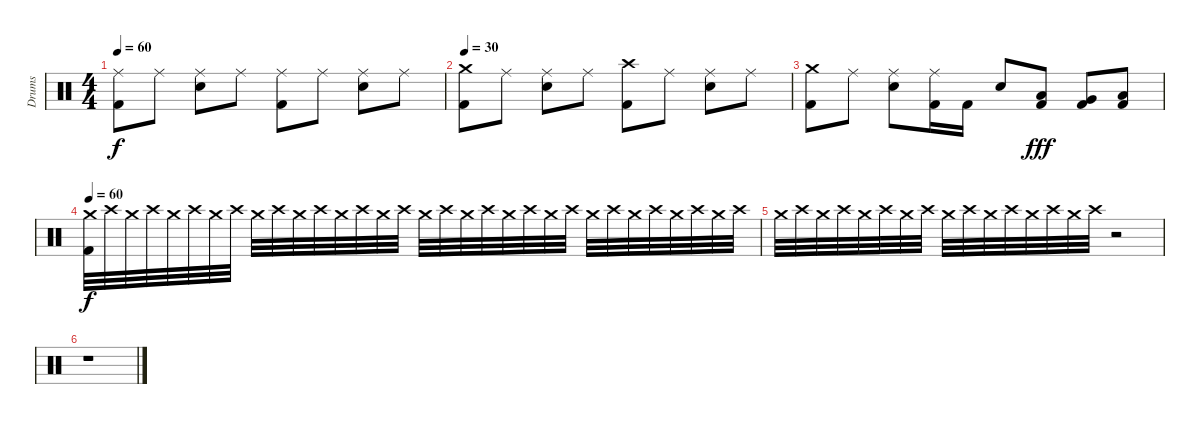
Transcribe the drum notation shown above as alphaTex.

\track ("Drums" "Drums") {instrument percussion}
\staff {score}
\articulation defaults
\ts (4 4)
\tempo 60
\clef neutral
\ks c
("Ride (middle)" "Kick (hit) 2").8{dy f} "Ride (middle)".8 ("Ride (middle)" "Electric Snare (hit)").8 "Ride (middle)".8 ("Ride (middle)" "Kick (hit) 2").8 "Ride (middle)".8 ("Ride (middle)" "Electric Snare (hit)").8 "Ride (middle)".8 |
\tempo 30
("Crash medium (hit)" "Kick (hit) 2").8 "Ride (middle)".8 ("Ride (middle)" "Electric Snare (hit)").8 "Ride (middle)".8 ("Crash high (hit)" "Kick (hit) 2").8 "Ride (middle)".8 ("Ride (middle)" "Electric Snare (hit)").8 "Ride (middle)".8 |
("Crash medium (hit)" "Kick (hit) 2").8 "Ride (middle)".8 ("Ride (middle)" "Electric Snare (hit)").8 ("Ride (middle)" "Kick (hit) 2").16 "Kick (hit) 2".16 "Electric Snare (hit)".8 ("Low Tom (hit)" "Kick (hit) 2").8{dy fff} ("Very Low Tom (hit)" "Kick (hit) 2").8 ("Low Floor Tom (hit)" "Kick (hit) 2").8 |
\tempo 60
("Crash medium (hit)" "Kick (hit) 2").32{dy f volume 0} "Crash high (hit)".32 "Crash medium (hit)".32 "Crash high (hit)".32 "Crash medium (hit)".32 "Crash high (hit)".32 "Crash medium (hit)".32 "Crash high (hit)".32 "Crash medium (hit)".32 "Crash high (hit)".32 "Crash medium (hit)".32 "Crash high (hit)".32 "Crash medium (hit)".32 "Crash high (hit)".32 "Crash medium (hit)".32 "Crash high (hit)".32 "Crash medium (hit)".32 "Crash high (hit)".32 "Crash medium (hit)".32 "Crash high (hit)".32 "Crash medium (hit)".32 "Crash high (hit)".32 "Crash medium (hit)".32 "Crash high (hit)".32 "Crash medium (hit)".32 "Crash high (hit)".32 "Crash medium (hit)".32 "Crash high (hit)".32 "Crash medium (hit)".32 "Crash high (hit)".32 "Crash medium (hit)".32 "Crash high (hit)".32 |
"Crash medium (hit)".32 "Crash high (hit)".32 "Crash medium (hit)".32 "Crash high (hit)".32 "Crash medium (hit)".32 "Crash high (hit)".32 "Crash medium (hit)".32 "Crash high (hit)".32 "Crash medium (hit)".32 "Crash high (hit)".32 "Crash medium (hit)".32 "Crash high (hit)".32 "Crash medium (hit)".32 "Crash high (hit)".32 "Crash medium (hit)".32 "Crash high (hit)".32 r.2 |
r.1
